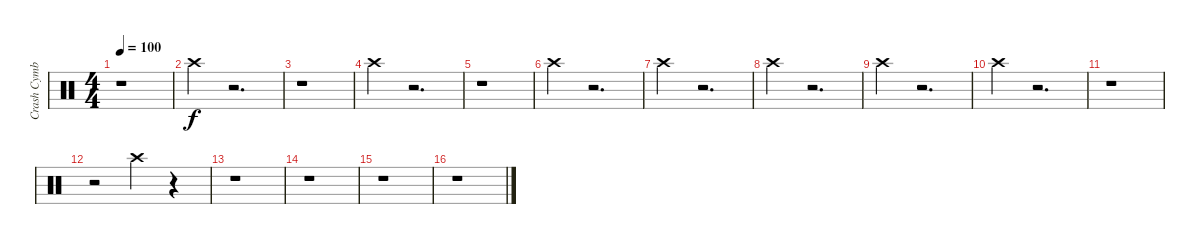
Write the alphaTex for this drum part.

\track ("Crash Cymbal" "Crash Cymb") {instrument percussion}
\staff {score}
\articulation defaults
\ts (4 4)
\tempo 100
\clef neutral
\ks c
r.1{dy f} |
"Crash high (hit)".4 r.2{d} |
r.1 |
"Crash high (hit)".4 r.2{d} |
r.1 |
"Crash high (hit)".4 r.2{d} |
"Crash high (hit)".4 r.2{d} |
"Crash high (hit)".4 r.2{d} |
"Crash high (hit)".4 r.2{d} |
"Crash high (hit)".4 r.2{d} |
r.1 |
r.2 "Crash high (hit)".4 r.4 |
r.1 |
r.1 |
r.1 |
r.1
